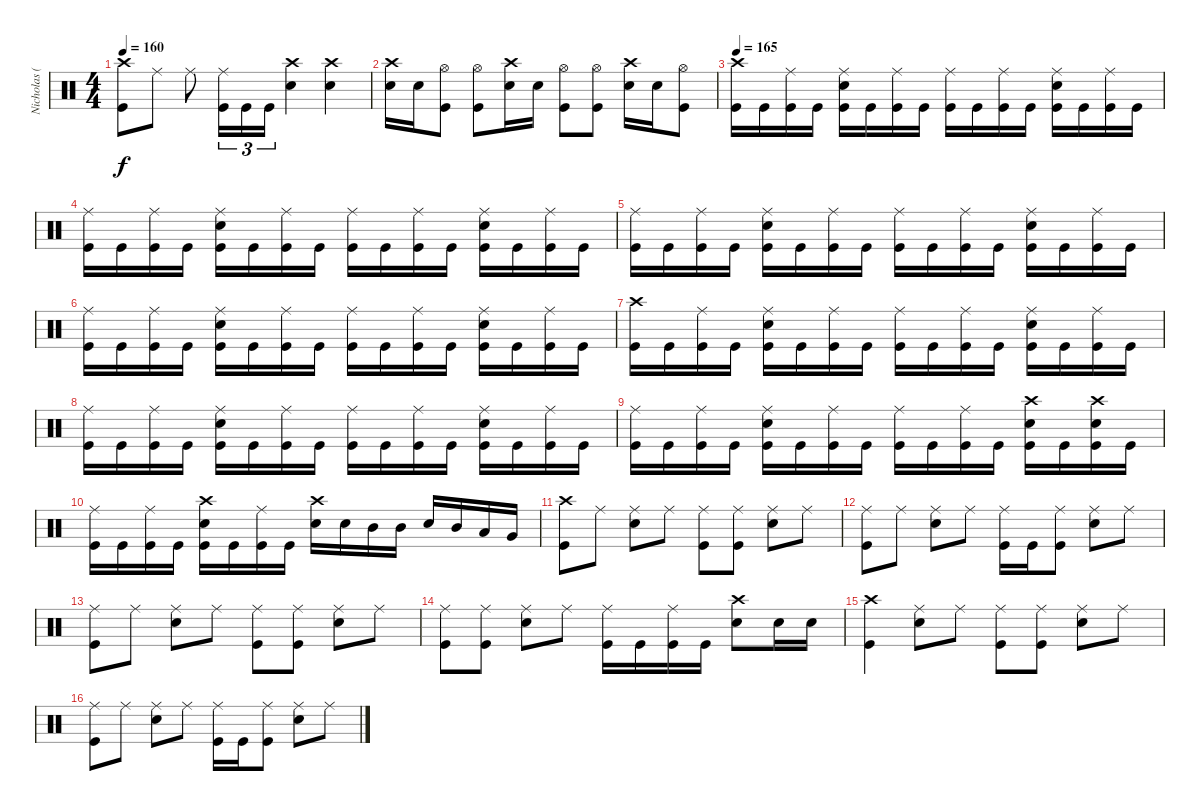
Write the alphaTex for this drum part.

\track ("Nicholas (Drums)" "Nicholas (") {instrument percussion}
\staff {score}
\articulation defaults
\ts (4 4)
\tempo 160
\clef neutral
\ks c
("Crash high (hit)" "Kick (hit)").8{dy f} "Ride (middle)".8 "Ride (middle)".8 ("Ride (middle)" "Kick (hit)").16{tu (3 2)} "Kick (hit)".16{tu (3 2)} "Kick (hit)".16{tu (3 2)} ("Crash high (hit)" "Electric Snare (hit)").4 ("Crash high (hit)" "Electric Snare (hit)").4 |
("Crash high (hit)" "Electric Snare (hit)").16 "Electric Snare (hit)".16 ("Hi-Hat (open)" "Kick (hit)").8 ("Hi-Hat (open)" "Kick (hit)").8 ("Crash high (hit)" "Electric Snare (hit)").16 "Electric Snare (hit)".16 ("Hi-Hat (open)" "Kick (hit)").8 ("Hi-Hat (open)" "Kick (hit)").8 ("Crash high (hit)" "Electric Snare (hit)").16 "Electric Snare (hit)".16 ("Hi-Hat (open)" "Kick (hit)").8 |
\tempo 165
("Crash high (hit)" "Kick (hit)").16 "Kick (hit)".16 ("Ride (middle)" "Kick (hit)").16 "Kick (hit)".16 ("Ride (middle)" "Electric Snare (hit)" "Kick (hit)").16 "Kick (hit)".16 ("Ride (middle)" "Kick (hit)").16 "Kick (hit)".16 ("Ride (middle)" "Kick (hit)").16 "Kick (hit)".16 ("Ride (middle)" "Kick (hit)").16 "Kick (hit)".16 ("Ride (middle)" "Electric Snare (hit)" "Kick (hit)").16 "Kick (hit)".16 ("Ride (middle)" "Kick (hit)").16 "Kick (hit)".16 |
("Ride (middle)" "Kick (hit)").16 "Kick (hit)".16 ("Ride (middle)" "Kick (hit)").16 "Kick (hit)".16 ("Ride (middle)" "Electric Snare (hit)" "Kick (hit)").16 "Kick (hit)".16 ("Ride (middle)" "Kick (hit)").16 "Kick (hit)".16 ("Ride (middle)" "Kick (hit)").16 "Kick (hit)".16 ("Ride (middle)" "Kick (hit)").16 "Kick (hit)".16 ("Ride (middle)" "Electric Snare (hit)" "Kick (hit)").16 "Kick (hit)".16 ("Ride (middle)" "Kick (hit)").16 "Kick (hit)".16 |
("Ride (middle)" "Kick (hit)").16 "Kick (hit)".16 ("Ride (middle)" "Kick (hit)").16 "Kick (hit)".16 ("Ride (middle)" "Electric Snare (hit)" "Kick (hit)").16 "Kick (hit)".16 ("Ride (middle)" "Kick (hit)").16 "Kick (hit)".16 ("Ride (middle)" "Kick (hit)").16 "Kick (hit)".16 ("Ride (middle)" "Kick (hit)").16 "Kick (hit)".16 ("Ride (middle)" "Electric Snare (hit)" "Kick (hit)").16 "Kick (hit)".16 ("Ride (middle)" "Kick (hit)").16 "Kick (hit)".16 |
("Ride (middle)" "Kick (hit)").16 "Kick (hit)".16 ("Ride (middle)" "Kick (hit)").16 "Kick (hit)".16 ("Ride (middle)" "Electric Snare (hit)" "Kick (hit)").16 "Kick (hit)".16 ("Ride (middle)" "Kick (hit)").16 "Kick (hit)".16 ("Ride (middle)" "Kick (hit)").16 "Kick (hit)".16 ("Ride (middle)" "Kick (hit)").16 "Kick (hit)".16 ("Ride (middle)" "Electric Snare (hit)" "Kick (hit)").16 "Kick (hit)".16 ("Ride (middle)" "Kick (hit)").16 "Kick (hit)".16 |
("Crash high (hit)" "Kick (hit)").16 "Kick (hit)".16 ("Ride (middle)" "Kick (hit)").16 "Kick (hit)".16 ("Ride (middle)" "Electric Snare (hit)" "Kick (hit)").16 "Kick (hit)".16 ("Ride (middle)" "Kick (hit)").16 "Kick (hit)".16 ("Ride (middle)" "Kick (hit)").16 "Kick (hit)".16 ("Ride (middle)" "Kick (hit)").16 "Kick (hit)".16 ("Ride (middle)" "Electric Snare (hit)" "Kick (hit)").16 "Kick (hit)".16 ("Ride (middle)" "Kick (hit)").16 "Kick (hit)".16 |
("Ride (middle)" "Kick (hit)").16 "Kick (hit)".16 ("Ride (middle)" "Kick (hit)").16 "Kick (hit)".16 ("Ride (middle)" "Electric Snare (hit)" "Kick (hit)").16 "Kick (hit)".16 ("Ride (middle)" "Kick (hit)").16 "Kick (hit)".16 ("Ride (middle)" "Kick (hit)").16 "Kick (hit)".16 ("Ride (middle)" "Kick (hit)").16 "Kick (hit)".16 ("Ride (middle)" "Electric Snare (hit)" "Kick (hit)").16 "Kick (hit)".16 ("Ride (middle)" "Kick (hit)").16 "Kick (hit)".16 |
("Ride (middle)" "Kick (hit)").16 "Kick (hit)".16 ("Ride (middle)" "Kick (hit)").16 "Kick (hit)".16 ("Ride (middle)" "Electric Snare (hit)" "Kick (hit)").16 "Kick (hit)".16 ("Ride (middle)" "Kick (hit)").16 "Kick (hit)".16 ("Ride (middle)" "Kick (hit)").16 "Kick (hit)".16 ("Ride (middle)" "Kick (hit)").16 "Kick (hit)".16 ("Crash high (hit)" "Electric Snare (hit)" "Kick (hit)").16 "Kick (hit)".16 ("Crash high (hit)" "Electric Snare (hit)" "Kick (hit)").16 "Kick (hit)".16 |
("Ride (middle)" "Kick (hit)").16 "Kick (hit)".16 ("Ride (middle)" "Kick (hit)").16 "Kick (hit)".16 ("Crash high (hit)" "Electric Snare (hit)" "Kick (hit)").16 "Kick (hit)".16 ("Ride (middle)" "Kick (hit)").16 "Kick (hit)".16 ("Crash high (hit)" "Electric Snare (hit)").16 "Electric Snare (hit)".16 "Mid Tom (hit)".16 "Mid Tom (hit)".16 "Electric Snare (hit)".16 "Mid Tom (hit)".16 "Low Tom (hit)".16 "Very Low Tom (hit)".16 |
("Crash high (hit)" "Kick (hit)").8 "Ride (middle)".8 ("Ride (middle)" "Electric Snare (hit)").8 "Ride (middle)".8 ("Ride (middle)" "Kick (hit)").8 ("Ride (middle)" "Kick (hit)").8 ("Ride (middle)" "Electric Snare (hit)").8 "Ride (middle)".8 |
("Ride (middle)" "Kick (hit)").8 "Ride (middle)".8 ("Ride (middle)" "Electric Snare (hit)").8 "Ride (middle)".8 ("Ride (middle)" "Kick (hit)").16 "Kick (hit)".16 ("Ride (middle)" "Kick (hit)").8 ("Ride (middle)" "Electric Snare (hit)").8 "Ride (middle)".8 |
("Ride (middle)" "Kick (hit)").8 "Ride (middle)".8 ("Ride (middle)" "Electric Snare (hit)").8 "Ride (middle)".8 ("Ride (middle)" "Kick (hit)").8 ("Ride (middle)" "Kick (hit)").8 ("Ride (middle)" "Electric Snare (hit)").8 "Ride (middle)".8 |
("Ride (middle)" "Kick (hit)").8 ("Ride (middle)" "Kick (hit)").8 ("Ride (middle)" "Electric Snare (hit)").8 "Ride (middle)".8 ("Ride (middle)" "Kick (hit)").16 "Kick (hit)".16 ("Ride (middle)" "Kick (hit)").16 "Kick (hit)".16 ("Crash high (hit)" "Electric Snare (hit)").8 "Electric Snare (hit)".16 "Electric Snare (hit)".16 |
("Crash high (hit)" "Kick (hit)").4 ("Ride (middle)" "Electric Snare (hit)").8 "Ride (middle)".8 ("Ride (middle)" "Kick (hit)").8 ("Ride (middle)" "Kick (hit)").8 ("Ride (middle)" "Electric Snare (hit)").8 "Ride (middle)".8 |
("Ride (middle)" "Kick (hit)").8 "Ride (middle)".8 ("Ride (middle)" "Electric Snare (hit)").8 "Ride (middle)".8 ("Ride (middle)" "Kick (hit)").16 "Kick (hit)".16 ("Ride (middle)" "Kick (hit)").8 ("Ride (middle)" "Electric Snare (hit)").8 "Ride (middle)".8
